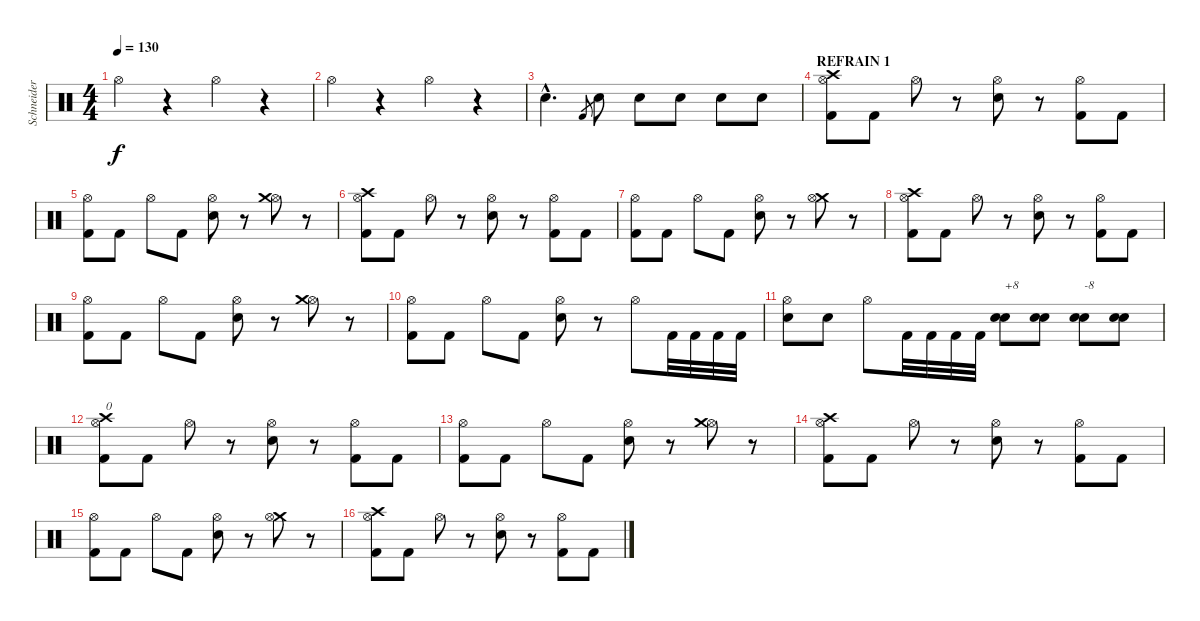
\track ("Schneider - Drums" "Schneider ") {instrument percussion}
\staff {score}
\articulation defaults
\ts (4 4)
\tempo 130
\clef neutral
\ks c "Hi-Hat (open)".4{dy f}
r.4 "Hi-Hat (open)".4 r.4 |
"Hi-Hat (open)".4 r.4 "Hi-Hat (open)".4 r.4 |
"Electric Snare (hit)"{hac}.4{d} "Kick (hit) 2".8{gr} "Electric Snare (hit)".8 "Electric Snare (hit)".8 "Electric Snare (hit)".8 "Electric Snare (hit)".8 "Electric Snare (hit)".8 |
\section ("" "REFRAIN 1")
("Kick (hit) 2" "Hi-Hat (open)" "Crash high (hit)").8 "Kick (hit) 2".8 "Hi-Hat (open)".8 r.8 ("Electric Snare (hit)" "Hi-Hat (open)").8 r.8 ("Kick (hit) 2" "Hi-Hat (open)").8 "Kick (hit) 2".8 |
("Kick (hit) 2" "Hi-Hat (open)").8 "Kick (hit) 2".8 "Hi-Hat (open)".8 "Kick (hit) 2".8 ("Electric Snare (hit)" "Hi-Hat (open)").8 r.8 ("Hi-Hat (open)" "Crash medium (hit)").8 r.8 |
("Kick (hit) 2" "Hi-Hat (open)" "Crash high (hit)").8 "Kick (hit) 2".8 "Hi-Hat (open)".8 r.8 ("Electric Snare (hit)" "Hi-Hat (open)").8 r.8 ("Kick (hit) 2" "Hi-Hat (open)").8 "Kick (hit) 2".8 |
("Kick (hit) 2" "Hi-Hat (open)").8 "Kick (hit) 2".8 "Hi-Hat (open)".8 "Kick (hit) 2".8 ("Electric Snare (hit)" "Hi-Hat (open)").8 r.8 ("Crash medium (hit)" "Hi-Hat (open)").8 r.8 |
("Kick (hit) 2" "Hi-Hat (open)" "Crash high (hit)").8 "Kick (hit) 2".8 "Hi-Hat (open)".8 r.8 ("Electric Snare (hit)" "Hi-Hat (open)").8 r.8 ("Kick (hit) 2" "Hi-Hat (open)").8 "Kick (hit) 2".8 |
("Kick (hit) 2" "Hi-Hat (open)").8 "Kick (hit) 2".8 "Hi-Hat (open)".8 "Kick (hit) 2".8 ("Electric Snare (hit)" "Hi-Hat (open)").8 r.8 ("Hi-Hat (open)" "Crash medium (hit)").8 r.8 |
("Kick (hit) 2" "Hi-Hat (open)").8 "Kick (hit) 2".8 "Hi-Hat (open)".8 "Kick (hit) 2".8 ("Electric Snare (hit)" "Hi-Hat (open)").8 r.8 "Hi-Hat (open)".8 "Kick (hit) 2".32 "Kick (hit) 2".32 "Kick (hit) 2".32 "Kick (hit) 2".32 |
("Electric Snare (hit)" "Hi-Hat (open)").8 "Electric Snare (hit)".8 "Hi-Hat (open)".8 "Kick (hit) 2".32 "Kick (hit) 2".32 "Kick (hit) 2".32 "Kick (hit) 2".32 ("Electric Snare (hit)" "Electric Snare (hit)").8{txt "+8" balance 16} ("Electric Snare (hit)" "Electric Snare (hit)").8 ("Electric Snare (hit)" "Electric Snare (hit)").8{txt "-8" balance 0} ("Electric Snare (hit)" "Electric Snare (hit)").8 |
("Kick (hit) 2" "Hi-Hat (open)" "Crash high (hit)").8{txt "0" balance 8} "Kick (hit) 2".8 "Hi-Hat (open)".8 r.8 ("Electric Snare (hit)" "Hi-Hat (open)").8 r.8 ("Kick (hit) 2" "Hi-Hat (open)").8 "Kick (hit) 2".8 |
("Kick (hit) 2" "Hi-Hat (open)").8 "Kick (hit) 2".8 "Hi-Hat (open)".8 "Kick (hit) 2".8 ("Electric Snare (hit)" "Hi-Hat (open)").8 r.8 ("Hi-Hat (open)" "Crash medium (hit)").8 r.8 |
("Kick (hit) 2" "Hi-Hat (open)" "Crash high (hit)").8 "Kick (hit) 2".8 "Hi-Hat (open)".8 r.8 ("Electric Snare (hit)" "Hi-Hat (open)").8 r.8 ("Kick (hit) 2" "Hi-Hat (open)").8 "Kick (hit) 2".8 |
("Kick (hit) 2" "Hi-Hat (open)").8 "Kick (hit) 2".8 "Hi-Hat (open)".8 "Kick (hit) 2".8 ("Electric Snare (hit)" "Hi-Hat (open)").8 r.8 ("Crash medium (hit)" "Hi-Hat (open)").8 r.8 |
("Kick (hit) 2" "Hi-Hat (open)" "Crash high (hit)").8 "Kick (hit) 2".8 "Hi-Hat (open)".8 r.8 ("Electric Snare (hit)" "Hi-Hat (open)").8 r.8 ("Kick (hit) 2" "Hi-Hat (open)").8 "Kick (hit) 2".8
